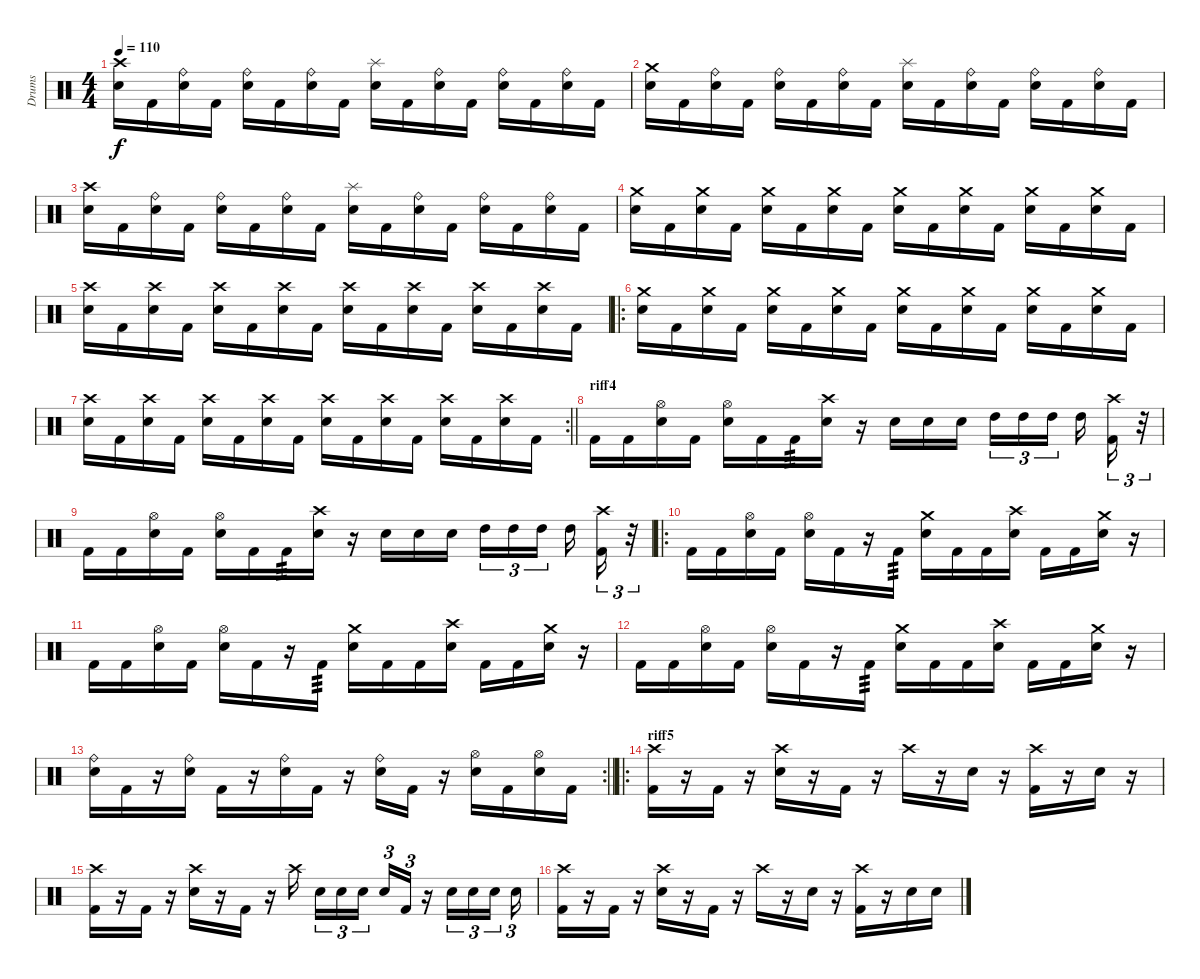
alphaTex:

\track ("Drums" "Drums") {instrument percussion}
\staff {score}
\articulation defaults
\ts (4 4)
\tempo 110
\clef neutral
\ks c
("Crash high (hit)" "Electric Snare (hit)").16{dy f} "Kick (hit) 2".16 ("Ride (bell)" "Electric Snare (hit)").16 "Kick (hit) 2".16 ("Ride (bell)" "Electric Snare (hit)").16 "Kick (hit) 2".16 ("Ride (bell)" "Electric Snare (hit)").16 "Kick (hit) 2".16 ("Splash (hit)" "Electric Snare (hit)").16 "Kick (hit) 2".16 ("Ride (bell)" "Electric Snare (hit)").16 "Kick (hit) 2".16 ("Ride (bell)" "Electric Snare (hit)").16 "Kick (hit) 2".16 ("Ride (bell)" "Electric Snare (hit)").16 "Kick (hit) 2".16 |
("Crash medium (hit)" "Electric Snare (hit)").16 "Kick (hit) 2".16 ("Ride (bell)" "Electric Snare (hit)").16 "Kick (hit) 2".16 ("Ride (bell)" "Electric Snare (hit)").16 "Kick (hit) 2".16 ("Ride (bell)" "Electric Snare (hit)").16 "Kick (hit) 2".16 ("Splash (hit)" "Electric Snare (hit)").16 "Kick (hit) 2".16 ("Ride (bell)" "Electric Snare (hit)").16 "Kick (hit) 2".16 ("Ride (bell)" "Electric Snare (hit)").16 "Kick (hit) 2".16 ("Ride (bell)" "Electric Snare (hit)").16 "Kick (hit) 2".16 |
("Crash high (hit)" "Electric Snare (hit)").16 "Kick (hit) 2".16 ("Ride (bell)" "Electric Snare (hit)").16 "Kick (hit) 2".16 ("Ride (bell)" "Electric Snare (hit)").16 "Kick (hit) 2".16 ("Ride (bell)" "Electric Snare (hit)").16 "Kick (hit) 2".16 ("Splash (hit)" "Electric Snare (hit)").16 "Kick (hit) 2".16 ("Ride (bell)" "Electric Snare (hit)").16 "Kick (hit) 2".16 ("Ride (bell)" "Electric Snare (hit)").16 "Kick (hit) 2".16 ("Ride (bell)" "Electric Snare (hit)").16 "Kick (hit) 2".16 |
("Crash medium (hit)" "Electric Snare (hit)").16 "Kick (hit) 2".16 ("Crash medium (hit)" "Electric Snare (hit)").16 "Kick (hit) 2".16 ("Crash medium (hit)" "Electric Snare (hit)").16 "Kick (hit) 2".16 ("Crash medium (hit)" "Electric Snare (hit)").16 "Kick (hit) 2".16 ("Crash medium (hit)" "Electric Snare (hit)").16 "Kick (hit) 2".16 ("Crash medium (hit)" "Electric Snare (hit)").16 "Kick (hit) 2".16 ("Crash medium (hit)" "Electric Snare (hit)").16 "Kick (hit) 2".16 ("Crash medium (hit)" "Electric Snare (hit)").16 "Kick (hit) 2".16 |
("Crash high (hit)" "Electric Snare (hit)").16 "Kick (hit) 2".16 ("Crash high (hit)" "Electric Snare (hit)").16 "Kick (hit) 2".16 ("Crash high (hit)" "Electric Snare (hit)").16 "Kick (hit) 2".16 ("Crash high (hit)" "Electric Snare (hit)").16 "Kick (hit) 2".16 ("Crash high (hit)" "Electric Snare (hit)").16 "Kick (hit) 2".16 ("Crash high (hit)" "Electric Snare (hit)").16 "Kick (hit) 2".16 ("Crash high (hit)" "Electric Snare (hit)").16 "Kick (hit) 2".16 ("Crash high (hit)" "Electric Snare (hit)").16 "Kick (hit) 2".16 |
\ro
("Crash medium (hit)" "Electric Snare (hit)").16 "Kick (hit) 2".16 ("Crash medium (hit)" "Electric Snare (hit)").16 "Kick (hit) 2".16 ("Crash medium (hit)" "Electric Snare (hit)").16 "Kick (hit) 2".16 ("Crash medium (hit)" "Electric Snare (hit)").16 "Kick (hit) 2".16 ("Crash medium (hit)" "Electric Snare (hit)").16 "Kick (hit) 2".16 ("Crash medium (hit)" "Electric Snare (hit)").16 "Kick (hit) 2".16 ("Crash medium (hit)" "Electric Snare (hit)").16 "Kick (hit) 2".16 ("Crash medium (hit)" "Electric Snare (hit)").16 "Kick (hit) 2".16 |
\rc 2
\barLineRight lightlight
("Crash high (hit)" "Electric Snare (hit)").16 "Kick (hit) 2".16 ("Crash high (hit)" "Electric Snare (hit)").16 "Kick (hit) 2".16 ("Crash high (hit)" "Electric Snare (hit)").16 "Kick (hit) 2".16 ("Crash high (hit)" "Electric Snare (hit)").16 "Kick (hit) 2".16 ("Crash high (hit)" "Electric Snare (hit)").16 "Kick (hit) 2".16 ("Crash high (hit)" "Electric Snare (hit)").16 "Kick (hit) 2".16 ("Crash high (hit)" "Electric Snare (hit)").16 "Kick (hit) 2".16 ("Crash high (hit)" "Electric Snare (hit)").16 "Kick (hit) 2".16 |
\section ("" "riff4")
"Kick (hit) 2".16 "Kick (hit) 2".16 ("Hi-Hat (open)" "Electric Snare (hit)").16 "Kick (hit) 2".16 ("Hi-Hat (open)" "Electric Snare (hit)").16 "Kick (hit) 2".16 "Kick (hit) 2".16{tp 3} ("Crash high (hit)" "Electric Snare (hit)").16 r.16 "Electric Snare (hit)".16 "Electric Snare (hit)".16 "Electric Snare (hit)".16 "High Tom (hit)".16{tu (3 2)} "High Tom (hit)".16{tu (3 2)} "High Tom (hit)".16{tu (3 2) beam splitsecondary} "High Tom (hit)".16 ("Crash high (hit)" "Kick (hit) 2").16{tu (3 2)} r.32{tu (3 2)} |
"Kick (hit) 2".16 "Kick (hit) 2".16 ("Hi-Hat (open)" "Electric Snare (hit)").16 "Kick (hit) 2".16 ("Hi-Hat (open)" "Electric Snare (hit)").16 "Kick (hit) 2".16 "Kick (hit) 2".16{tp 3} ("Crash high (hit)" "Electric Snare (hit)").16 r.16 "Electric Snare (hit)".16 "Electric Snare (hit)".16 "Electric Snare (hit)".16 "High Tom (hit)".16{tu (3 2)} "High Tom (hit)".16{tu (3 2)} "High Tom (hit)".16{tu (3 2) beam splitsecondary} "High Tom (hit)".16 ("Crash high (hit)" "Kick (hit) 2").16{tu (3 2)} r.32{tu (3 2)} |
\ro "Kick (hit) 2".16 "Kick (hit) 2".16
("Hi-Hat (open)" "Electric Snare (hit)").16 "Kick (hit) 2".16 ("Hi-Hat (open)" "Electric Snare (hit)").16 "Kick (hit) 2".16 r.16 "Kick (hit) 2".16{tp 3} ("Crash medium (hit)" "Electric Snare (hit)").16 "Kick (hit) 2".16 "Kick (hit) 2".16 ("Crash high (hit)" "Electric Snare (hit)").16 "Kick (hit) 2".16 "Kick (hit) 2".16 ("Crash medium (hit)" "Electric Snare (hit)").16 r.16 |
"Kick (hit) 2".16 "Kick (hit) 2".16 ("Hi-Hat (open)" "Electric Snare (hit)").16 "Kick (hit) 2".16 ("Hi-Hat (open)" "Electric Snare (hit)").16 "Kick (hit) 2".16 r.16 "Kick (hit) 2".16{tp 3} ("Crash medium (hit)" "Electric Snare (hit)").16 "Kick (hit) 2".16 "Kick (hit) 2".16 ("Crash high (hit)" "Electric Snare (hit)").16 "Kick (hit) 2".16 "Kick (hit) 2".16 ("Crash medium (hit)" "Electric Snare (hit)").16 r.16 |
"Kick (hit) 2".16 "Kick (hit) 2".16 ("Hi-Hat (open)" "Electric Snare (hit)").16 "Kick (hit) 2".16 ("Hi-Hat (open)" "Electric Snare (hit)").16 "Kick (hit) 2".16 r.16 "Kick (hit) 2".16{tp 3} ("Crash medium (hit)" "Electric Snare (hit)").16 "Kick (hit) 2".16 "Kick (hit) 2".16 ("Crash high (hit)" "Electric Snare (hit)").16 "Kick (hit) 2".16 "Kick (hit) 2".16 ("Crash medium (hit)" "Electric Snare (hit)").16 r.16 |
\rc 2
\barLineRight lightlight
("Ride (bell)" "Electric Snare (hit)").16 "Kick (hit) 2".16 r.16 ("Ride (bell)" "Electric Snare (hit)").16 "Kick (hit) 2".16 r.16 ("Ride (bell)" "Electric Snare (hit)").16 "Kick (hit) 2".16 r.16 ("Ride (bell)" "Electric Snare (hit)").16 "Kick (hit) 2".16 r.16 ("Hi-Hat (open)" "Electric Snare (hit)").16 "Kick (hit) 2".16 ("Hi-Hat (open)" "Electric Snare (hit)").16 "Kick (hit) 2".16 |
\ro
\section ("" "riff5")
("Crash high (hit)" "Kick (hit) 2").16 r.16 "Kick (hit) 2".16 r.16 ("Crash high (hit)" "Electric Snare (hit)").16 r.16 "Kick (hit) 2".16 r.16 "Crash high (hit)".16 r.16 "Electric Snare (hit)".16 r.16 ("Crash high (hit)" "Kick (hit) 2").16 r.16 "Electric Snare (hit)".16 r.16 |
("Crash high (hit)" "Kick (hit) 2").16 r.16 "Kick (hit) 2".16 r.16 ("Crash high (hit)" "Electric Snare (hit)").16 r.16 "Kick (hit) 2".16 r.16 "Crash high (hit)".16{beam splitsecondary} "Electric Snare (hit)".16{tu (3 2)} "Electric Snare (hit)".16{tu (3 2)} "Electric Snare (hit)".16{tu (3 2) beam splitsecondary} "Electric Snare (hit)".16{tu (3 2)} "Kick (hit) 2".16{tu (3 2)} r.16 "Electric Snare (hit)".16{tu (3 2)} "Electric Snare (hit)".16{tu (3 2)} "Electric Snare (hit)".16{tu (3 2) beam splitsecondary} "Electric Snare (hit)".16{tu (3 2)} |
("Crash high (hit)" "Kick (hit) 2").16 r.16 "Kick (hit) 2".16 r.16 ("Crash high (hit)" "Electric Snare (hit)").16 r.16 "Kick (hit) 2".16 r.16 "Crash high (hit)".16 r.16 "Electric Snare (hit)".16 r.16 ("Crash high (hit)" "Kick (hit) 2").16 r.16 "Electric Snare (hit)".16 "Electric Snare (hit)".16
